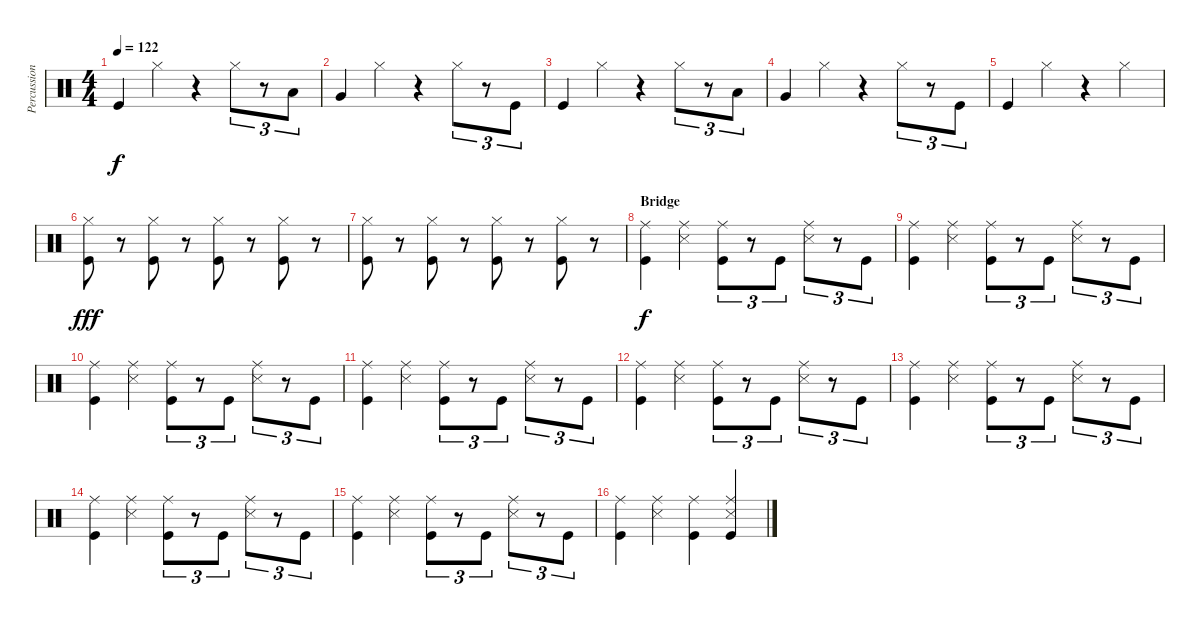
\track ("Percussion" "Percussion") {instrument percussion}
\staff {score}
\articulation defaults
\ts (4 4)
\tempo 122
\clef neutral
\ks c "Kick (hit)".4{dy f} "Hi-Hat (closed)".4
r.4 "Hi-Hat (closed)".8{tu (3 2)} r.8{tu (3 2)} "Low Tom (hit)".8{tu (3 2)} |
"Very Low Tom (hit)".4 "Hi-Hat (closed)".4 r.4 "Hi-Hat (closed)".8{tu (3 2)} r.8{tu (3 2)} "Kick (hit)".8{tu (3 2)} |
"Kick (hit)".4 "Hi-Hat (closed)".4 r.4 "Hi-Hat (closed)".8{tu (3 2)} r.8{tu (3 2)} "Low Tom (hit)".8{tu (3 2)} |
"Very Low Tom (hit)".4 "Hi-Hat (closed)".4 r.4 "Hi-Hat (closed)".8{tu (3 2)} r.8{tu (3 2)} "Kick (hit)".8{tu (3 2)} |
"Kick (hit)".4 "Hi-Hat (closed)".4 r.4 "Hi-Hat (closed)".4 |
("Hi-Hat (closed)" "Kick (hit)").8{dy fff} r.8 ("Hi-Hat (closed)" "Kick (hit)").8 r.8 ("Hi-Hat (closed)" "Kick (hit)").8 r.8 ("Hi-Hat (closed)" "Kick (hit)").8 r.8 |
("Hi-Hat (closed)" "Kick (hit)").8 r.8 ("Hi-Hat (closed)" "Kick (hit)").8 r.8 ("Hi-Hat (closed)" "Kick (hit)").8 r.8 ("Hi-Hat (closed)" "Kick (hit)").8 r.8 |
\section ("" "Bridge")
("Ride (middle)" "Kick (hit)").4{dy f} ("Ride (middle)" "Snare (side stick) 3").4 ("Ride (middle)" "Kick (hit)").8{tu (3 2)} r.8{tu (3 2)} "Kick (hit)".8{tu (3 2)} ("Ride (middle)" "Snare (side stick) 3").8{tu (3 2)} r.8{tu (3 2)} "Kick (hit)".8{tu (3 2)} |
("Ride (middle)" "Kick (hit)").4 ("Ride (middle)" "Snare (side stick) 3").4 ("Ride (middle)" "Kick (hit)").8{tu (3 2)} r.8{tu (3 2)} "Kick (hit)".8{tu (3 2)} ("Ride (middle)" "Snare (side stick) 3").8{tu (3 2)} r.8{tu (3 2)} "Kick (hit)".8{tu (3 2)} |
("Ride (middle)" "Kick (hit)").4 ("Ride (middle)" "Snare (side stick) 3").4 ("Ride (middle)" "Kick (hit)").8{tu (3 2)} r.8{tu (3 2)} "Kick (hit)".8{tu (3 2)} ("Ride (middle)" "Snare (side stick) 3").8{tu (3 2)} r.8{tu (3 2)} "Kick (hit)".8{tu (3 2)} |
("Ride (middle)" "Kick (hit)").4 ("Ride (middle)" "Snare (side stick) 3").4 ("Ride (middle)" "Kick (hit)").8{tu (3 2)} r.8{tu (3 2)} "Kick (hit)".8{tu (3 2)} ("Ride (middle)" "Snare (side stick) 3").8{tu (3 2)} r.8{tu (3 2)} "Kick (hit)".8{tu (3 2)} |
("Ride (middle)" "Kick (hit)").4 ("Ride (middle)" "Snare (side stick) 3").4 ("Ride (middle)" "Kick (hit)").8{tu (3 2)} r.8{tu (3 2)} "Kick (hit)".8{tu (3 2)} ("Ride (middle)" "Snare (side stick) 3").8{tu (3 2)} r.8{tu (3 2)} "Kick (hit)".8{tu (3 2)} |
("Ride (middle)" "Kick (hit)").4 ("Ride (middle)" "Snare (side stick) 3").4 ("Ride (middle)" "Kick (hit)").8{tu (3 2)} r.8{tu (3 2)} "Kick (hit)".8{tu (3 2)} ("Ride (middle)" "Snare (side stick) 3").8{tu (3 2)} r.8{tu (3 2)} "Kick (hit)".8{tu (3 2)} |
("Ride (middle)" "Kick (hit)").4 ("Ride (middle)" "Snare (side stick) 3").4 ("Ride (middle)" "Kick (hit)").8{tu (3 2)} r.8{tu (3 2)} "Kick (hit)".8{tu (3 2)} ("Ride (middle)" "Snare (side stick) 3").8{tu (3 2)} r.8{tu (3 2)} "Kick (hit)".8{tu (3 2)} |
("Ride (middle)" "Kick (hit)").4 ("Ride (middle)" "Snare (side stick) 3").4 ("Ride (middle)" "Kick (hit)").8{tu (3 2)} r.8{tu (3 2)} "Kick (hit)".8{tu (3 2)} ("Ride (middle)" "Snare (side stick) 3").8{tu (3 2)} r.8{tu (3 2)} "Kick (hit)".8{tu (3 2)} |
("Ride (middle)" "Kick (hit)").4 ("Ride (middle)" "Snare (side stick) 3").4 ("Ride (middle)" "Kick (hit)").4 ("Ride (middle)" "Snare (side stick) 3" "Kick (hit)").4
